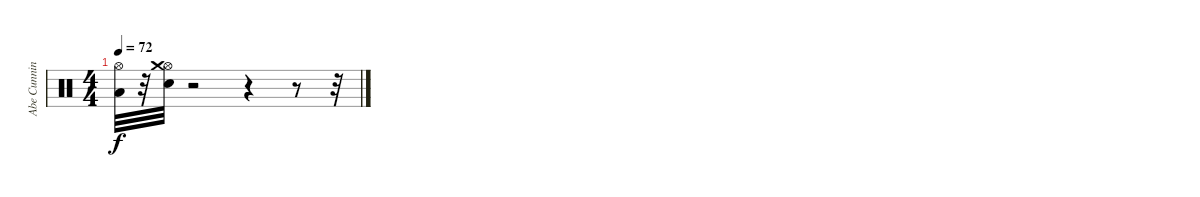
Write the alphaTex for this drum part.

\track ("Abe Cunningham [drums]" "Abe Cunnin") {instrument percussion}
\staff {score}
\articulation defaults
\ts (4 4)
\tempo 72
\clef neutral
\ks c
("Hi-Hat (open)" "Low Tom (hit)").32{dy f} r.32 ("Hi-Hat (open)" "Crash medium (hit)" "Electric Snare (hit)").32 r.2 r.4 r.8 r.32
